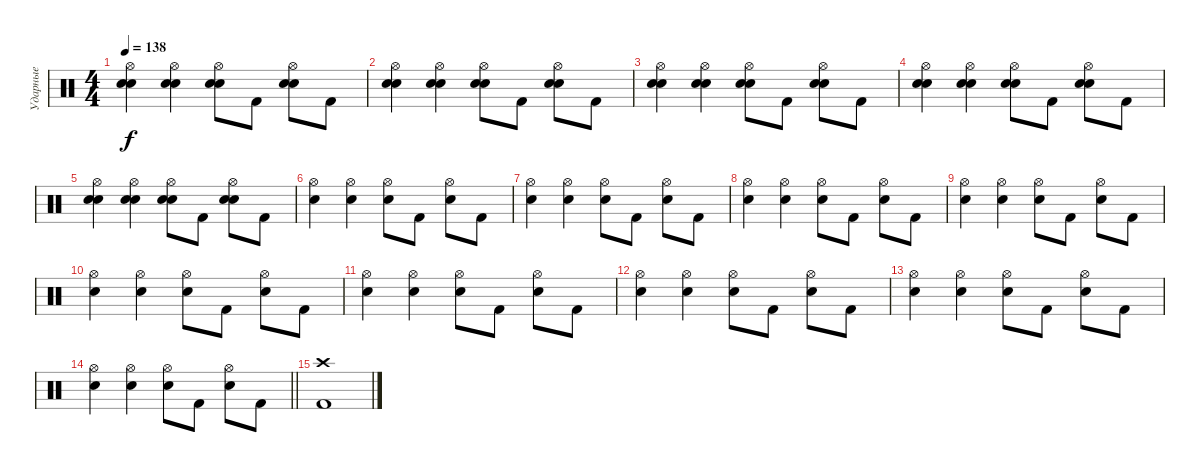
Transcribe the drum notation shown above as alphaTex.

\track ("Ударные" "Ударные") {instrument percussion}
\staff {score}
\articulation defaults
\ts (4 4)
\tempo 138
\clef neutral
\ks c
("Hand Clap (hit)" "Snare (hit) 2" "Hi-Hat (open)").4{dy f} ("Hand Clap (hit)" "Snare (hit) 2" "Hi-Hat (open)").4 ("Hand Clap (hit)" "Snare (hit) 2" "Hi-Hat (open)").8 "Kick (hit) 2".8 ("Hand Clap (hit)" "Hi-Hat (open)" "Snare (hit) 2").8 "Kick (hit) 2".8 |
("Hand Clap (hit)" "Snare (hit) 2" "Hi-Hat (open)").4 ("Hand Clap (hit)" "Snare (hit) 2" "Hi-Hat (open)").4 ("Hand Clap (hit)" "Snare (hit) 2" "Hi-Hat (open)").8 "Kick (hit) 2".8 ("Hand Clap (hit)" "Hi-Hat (open)" "Snare (hit) 2").8 "Kick (hit) 2".8 |
("Hand Clap (hit)" "Snare (hit) 2" "Hi-Hat (open)").4 ("Hand Clap (hit)" "Snare (hit) 2" "Hi-Hat (open)").4 ("Hand Clap (hit)" "Snare (hit) 2" "Hi-Hat (open)").8 "Kick (hit) 2".8 ("Hand Clap (hit)" "Hi-Hat (open)" "Snare (hit) 2").8 "Kick (hit) 2".8 |
("Hand Clap (hit)" "Snare (hit) 2" "Hi-Hat (open)").4 ("Hand Clap (hit)" "Snare (hit) 2" "Hi-Hat (open)").4 ("Hand Clap (hit)" "Snare (hit) 2" "Hi-Hat (open)").8 "Kick (hit) 2".8 ("Hand Clap (hit)" "Hi-Hat (open)" "Snare (hit) 2").8 "Kick (hit) 2".8 |
("Hand Clap (hit)" "Snare (hit) 2" "Hi-Hat (open)").4 ("Hand Clap (hit)" "Snare (hit) 2" "Hi-Hat (open)").4 ("Hand Clap (hit)" "Snare (hit) 2" "Hi-Hat (open)").8 "Kick (hit) 2".8 ("Hand Clap (hit)" "Hi-Hat (open)" "Snare (hit) 2").8 "Kick (hit) 2".8 |
("Snare (hit) 2" "Hi-Hat (open)").4 ("Snare (hit) 2" "Hi-Hat (open)").4 ("Snare (hit) 2" "Hi-Hat (open)").8 "Kick (hit) 2".8 ("Hi-Hat (open)" "Snare (hit) 2").8 "Kick (hit) 2".8 |
("Snare (hit) 2" "Hi-Hat (open)").4 ("Snare (hit) 2" "Hi-Hat (open)").4 ("Snare (hit) 2" "Hi-Hat (open)").8 "Kick (hit) 2".8 ("Hi-Hat (open)" "Snare (hit) 2").8 "Kick (hit) 2".8 |
("Snare (hit) 2" "Hi-Hat (open)").4 ("Snare (hit) 2" "Hi-Hat (open)").4 ("Snare (hit) 2" "Hi-Hat (open)").8 "Kick (hit) 2".8 ("Hi-Hat (open)" "Snare (hit) 2").8 "Kick (hit) 2".8 |
("Snare (hit) 2" "Hi-Hat (open)").4 ("Snare (hit) 2" "Hi-Hat (open)").4 ("Snare (hit) 2" "Hi-Hat (open)").8 "Kick (hit) 2".8 ("Hi-Hat (open)" "Snare (hit) 2").8 "Kick (hit) 2".8 |
("Snare (hit) 2" "Hi-Hat (open)").4 ("Snare (hit) 2" "Hi-Hat (open)").4 ("Snare (hit) 2" "Hi-Hat (open)").8 "Kick (hit) 2".8 ("Hi-Hat (open)" "Snare (hit) 2").8 "Kick (hit) 2".8 |
("Snare (hit) 2" "Hi-Hat (open)").4 ("Snare (hit) 2" "Hi-Hat (open)").4 ("Snare (hit) 2" "Hi-Hat (open)").8 "Kick (hit) 2".8 ("Hi-Hat (open)" "Snare (hit) 2").8 "Kick (hit) 2".8 |
("Snare (hit) 2" "Hi-Hat (open)").4 ("Snare (hit) 2" "Hi-Hat (open)").4 ("Snare (hit) 2" "Hi-Hat (open)").8 "Kick (hit) 2".8 ("Hi-Hat (open)" "Snare (hit) 2").8 "Kick (hit) 2".8 |
("Snare (hit) 2" "Hi-Hat (open)").4 ("Snare (hit) 2" "Hi-Hat (open)").4 ("Snare (hit) 2" "Hi-Hat (open)").8 "Kick (hit) 2".8 ("Hi-Hat (open)" "Snare (hit) 2").8 "Kick (hit) 2".8 |
\barLineRight lightlight
("Snare (hit) 2" "Hi-Hat (open)").4 ("Snare (hit) 2" "Hi-Hat (open)").4 ("Snare (hit) 2" "Hi-Hat (open)").8 "Kick (hit) 2".8 ("Hi-Hat (open)" "Snare (hit) 2").8 "Kick (hit) 2".8 |
("Crash high (hit)" "Kick (hit) 2").1
